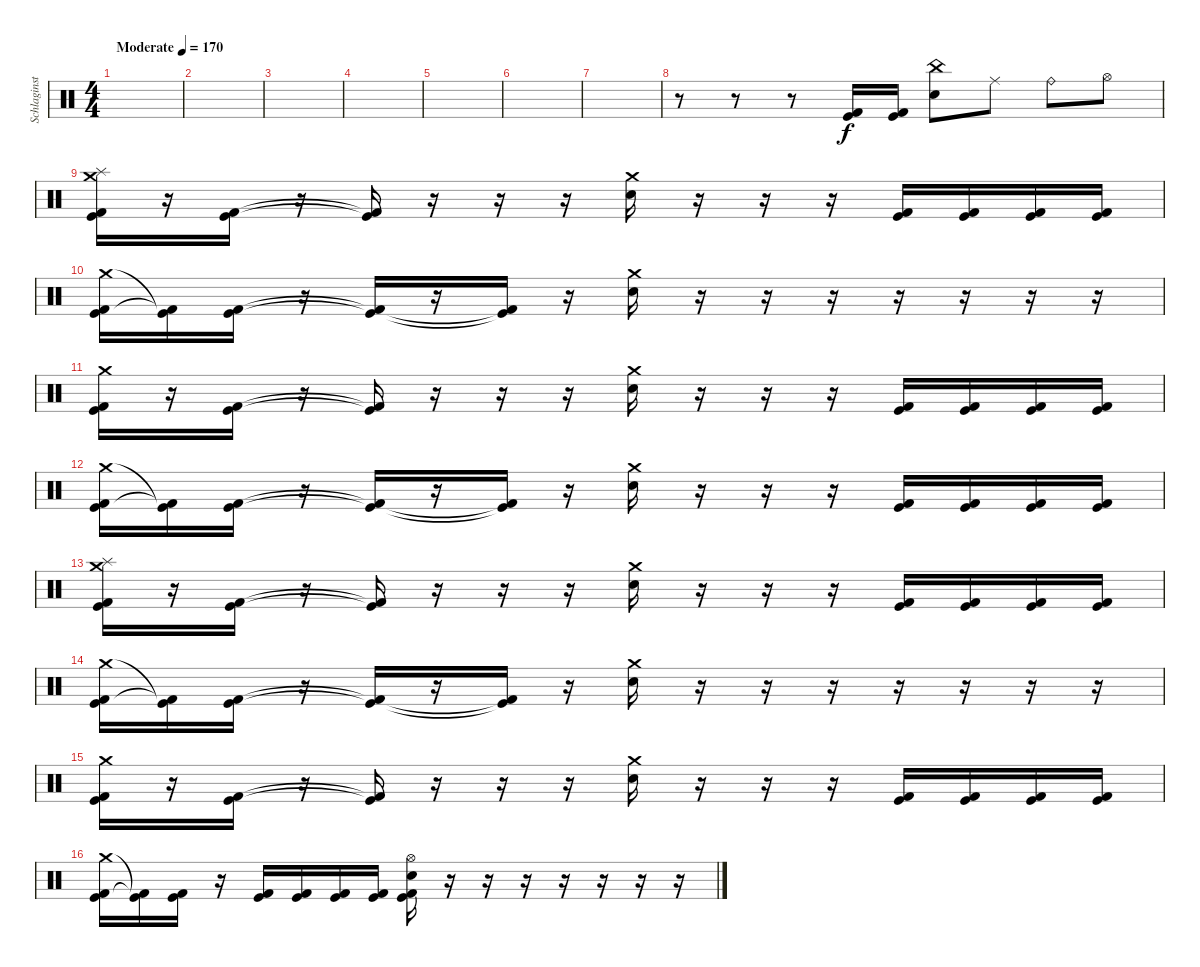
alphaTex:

\track ("Schlaginstrumente - Auswahl" "Schlaginst") {instrument percussion}
\staff {score}
\articulation defaults
\ts (4 4)
\tempo (170 "Moderate")
\clef neutral
\ks c
|
|
|
|
|
|
|
r.8 r.8 r.8 ("Kick (hit)" "Kick (hit) 2").16 ("Kick (hit)" "Kick (hit) 2").16 ("China (hit)" "Electric Snare (hit)").8 "Ride (middle)".8 "Ride (bell)".8 "Hi-Hat (open)".8 |
("Crash medium (hit)" "Splash (hit)" "Kick (hit)" "Kick (hit) 2").16 r.16 ("Kick (hit)" "Kick (hit) 2").16 r.16 ("Kick (hit)"{t} "Kick (hit) 2"{t}).16 r.16 r.16 r.16 ("Crash medium (hit)" "Electric Snare (hit)").16 r.16 r.16 r.16 ("Kick (hit)" "Kick (hit) 2").16 ("Kick (hit)" "Kick (hit) 2").16 ("Kick (hit)" "Kick (hit) 2").16 ("Kick (hit)" "Kick (hit) 2").16 |
("Crash medium (hit)" "Kick (hit)" "Kick (hit) 2").16 ("Kick (hit)"{t} "Kick (hit) 2"{t}).16 ("Kick (hit)" "Kick (hit) 2").16 r.16 ("Kick (hit)"{t} "Kick (hit) 2"{t}).16 r.16 ("Kick (hit)"{t} "Kick (hit) 2"{t}).16 r.16 ("Crash medium (hit)" "Electric Snare (hit)").16 r.16 r.16 r.16 r.16 r.16 r.16 r.16 |
("Crash medium (hit)" "Kick (hit)" "Kick (hit) 2").16 r.16 ("Kick (hit)" "Kick (hit) 2").16 r.16 ("Kick (hit)"{t} "Kick (hit) 2"{t}).16 r.16 r.16 r.16 ("Crash medium (hit)" "Electric Snare (hit)").16 r.16 r.16 r.16 ("Kick (hit)" "Kick (hit) 2").16 ("Kick (hit)" "Kick (hit) 2").16 ("Kick (hit)" "Kick (hit) 2").16 ("Kick (hit)" "Kick (hit) 2").16 |
("Crash medium (hit)" "Kick (hit)" "Kick (hit) 2").16 ("Kick (hit)"{t} "Kick (hit) 2"{t}).16 ("Kick (hit)" "Kick (hit) 2").16 r.16 ("Kick (hit)"{t} "Kick (hit) 2"{t}).16 r.16 ("Kick (hit)"{t} "Kick (hit) 2"{t}).16 r.16 ("Crash medium (hit)" "Electric Snare (hit)").16 r.16 r.16 r.16 ("Kick (hit)" "Kick (hit) 2").16 ("Kick (hit)" "Kick (hit) 2").16 ("Kick (hit)" "Kick (hit) 2").16 ("Kick (hit)" "Kick (hit) 2").16 |
("Crash medium (hit)" "Splash (hit)" "Kick (hit)" "Kick (hit) 2").16 r.16 ("Kick (hit)" "Kick (hit) 2").16 r.16 ("Kick (hit)"{t} "Kick (hit) 2"{t}).16 r.16 r.16 r.16 ("Crash medium (hit)" "Electric Snare (hit)").16 r.16 r.16 r.16 ("Kick (hit)" "Kick (hit) 2").16 ("Kick (hit)" "Kick (hit) 2").16 ("Kick (hit)" "Kick (hit) 2").16 ("Kick (hit)" "Kick (hit) 2").16 |
("Crash medium (hit)" "Kick (hit)" "Kick (hit) 2").16 ("Kick (hit)"{t} "Kick (hit) 2"{t}).16 ("Kick (hit)" "Kick (hit) 2").16 r.16 ("Kick (hit)"{t} "Kick (hit) 2"{t}).16 r.16 ("Kick (hit)"{t} "Kick (hit) 2"{t}).16 r.16 ("Crash medium (hit)" "Electric Snare (hit)").16 r.16 r.16 r.16 r.16 r.16 r.16 r.16 |
("Crash medium (hit)" "Kick (hit)" "Kick (hit) 2").16 r.16 ("Kick (hit)" "Kick (hit) 2").16 r.16 ("Kick (hit)"{t} "Kick (hit) 2"{t}).16 r.16 r.16 r.16 ("Crash medium (hit)" "Electric Snare (hit)").16 r.16 r.16 r.16 ("Kick (hit)" "Kick (hit) 2").16 ("Kick (hit)" "Kick (hit) 2").16 ("Kick (hit)" "Kick (hit) 2").16 ("Kick (hit)" "Kick (hit) 2").16 |
("Crash medium (hit)" "Kick (hit)" "Kick (hit) 2").16 ("Kick (hit)"{t} "Kick (hit) 2"{t}).16 ("Kick (hit)" "Kick (hit) 2").16 r.16 ("Kick (hit)" "Kick (hit) 2").16 ("Kick (hit)" "Kick (hit) 2").16 ("Kick (hit)" "Kick (hit) 2").16 ("Kick (hit)" "Kick (hit) 2").16 ("Hi-Hat (open)" "Electric Snare (hit)" "Kick (hit)" "Kick (hit) 2").16 r.16 r.16 r.16 r.16 r.16 r.16 r.16
